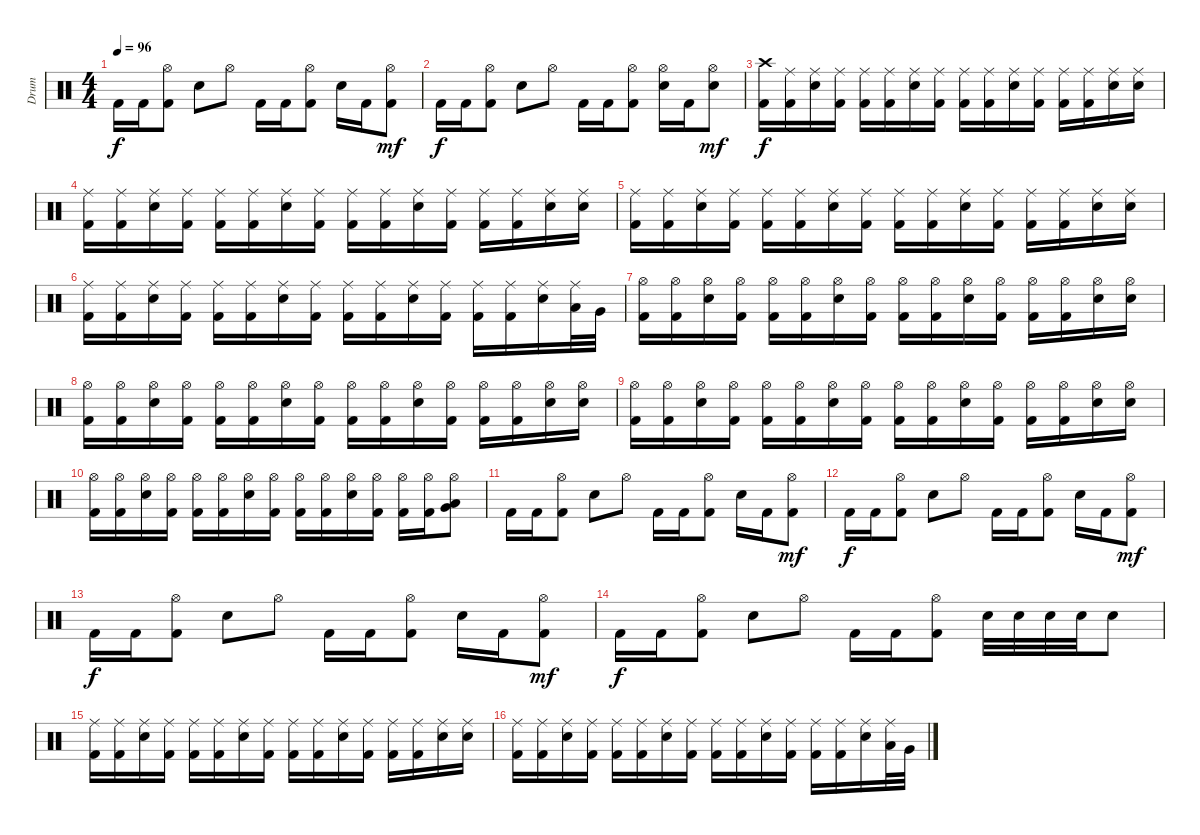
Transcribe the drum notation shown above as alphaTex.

\track ("Drum" "Drum") {instrument percussion}
\staff {score}
\articulation defaults
\ts (4 4)
\tempo 96
\clef neutral
\ks c "Kick (hit) 2".16{dy f} "Kick (hit) 2".16
("Kick (hit) 2" "Hi-Hat (open)").8 "Snare (hit) 2".8 "Hi-Hat (open)".8 "Kick (hit) 2".16 "Kick (hit) 2".16 ("Kick (hit) 2" "Hi-Hat (open)").8 "Snare (hit) 2".16 "Kick (hit) 2".16 ("Kick (hit) 2" "Hi-Hat (open)").8{dy mf} |
"Kick (hit) 2".16{dy f} "Kick (hit) 2".16 ("Kick (hit) 2" "Hi-Hat (open)").8 "Snare (hit) 2".8 "Hi-Hat (open)".8 "Kick (hit) 2".16 "Kick (hit) 2".16 ("Kick (hit) 2" "Hi-Hat (open)").8 ("Snare (hit) 2" "Hi-Hat (open)").16 "Kick (hit) 2".16 ("Snare (hit) 2" "Hi-Hat (open)").8{dy mf} |
("Kick (hit) 2" "Crash high (hit)").16{dy f} ("Kick (hit) 2" "Ride (middle)").16 ("Snare (hit) 2" "Ride (middle)").16 ("Kick (hit) 2" "Ride (middle)").16 ("Kick (hit) 2" "Ride (middle)").16 ("Kick (hit) 2" "Ride (middle)").16 ("Snare (hit) 2" "Ride (middle)").16 ("Kick (hit) 2" "Ride (middle)").16 ("Kick (hit) 2" "Ride (middle)").16 ("Kick (hit) 2" "Ride (middle)").16 ("Snare (hit) 2" "Ride (middle)").16 ("Kick (hit) 2" "Ride (middle)").16 ("Kick (hit) 2" "Ride (middle)").16 ("Kick (hit) 2" "Ride (middle)").16 ("Snare (hit) 2" "Ride (middle)").16 ("Snare (hit) 2" "Ride (middle)").16 |
("Kick (hit) 2" "Ride (middle)").16 ("Kick (hit) 2" "Ride (middle)").16 ("Snare (hit) 2" "Ride (middle)").16 ("Kick (hit) 2" "Ride (middle)").16 ("Kick (hit) 2" "Ride (middle)").16 ("Kick (hit) 2" "Ride (middle)").16 ("Snare (hit) 2" "Ride (middle)").16 ("Kick (hit) 2" "Ride (middle)").16 ("Kick (hit) 2" "Ride (middle)").16 ("Kick (hit) 2" "Ride (middle)").16 ("Snare (hit) 2" "Ride (middle)").16 ("Kick (hit) 2" "Ride (middle)").16 ("Kick (hit) 2" "Ride (middle)").16 ("Kick (hit) 2" "Ride (middle)").16 ("Snare (hit) 2" "Ride (middle)").16 ("Snare (hit) 2" "Ride (middle)").16 |
("Kick (hit) 2" "Ride (middle)").16 ("Kick (hit) 2" "Ride (middle)").16 ("Snare (hit) 2" "Ride (middle)").16 ("Kick (hit) 2" "Ride (middle)").16 ("Kick (hit) 2" "Ride (middle)").16 ("Kick (hit) 2" "Ride (middle)").16 ("Snare (hit) 2" "Ride (middle)").16 ("Kick (hit) 2" "Ride (middle)").16 ("Kick (hit) 2" "Ride (middle)").16 ("Kick (hit) 2" "Ride (middle)").16 ("Snare (hit) 2" "Ride (middle)").16 ("Kick (hit) 2" "Ride (middle)").16 ("Kick (hit) 2" "Ride (middle)").16 ("Kick (hit) 2" "Ride (middle)").16 ("Snare (hit) 2" "Ride (middle)").16 ("Snare (hit) 2" "Ride (middle)").16 |
("Kick (hit) 2" "Ride (middle)").16 ("Kick (hit) 2" "Ride (middle)").16 ("Snare (hit) 2" "Ride (middle)").16 ("Kick (hit) 2" "Ride (middle)").16 ("Kick (hit) 2" "Ride (middle)").16 ("Kick (hit) 2" "Ride (middle)").16 ("Snare (hit) 2" "Ride (middle)").16 ("Kick (hit) 2" "Ride (middle)").16 ("Kick (hit) 2" "Ride (middle)").16 ("Kick (hit) 2" "Ride (middle)").16 ("Snare (hit) 2" "Ride (middle)").16 ("Kick (hit) 2" "Ride (middle)").16 ("Kick (hit) 2" "Ride (middle)").16 ("Kick (hit) 2" "Ride (middle)").16 ("Snare (hit) 2" "Ride (middle)").16 ("Low Tom (hit)" "Ride (middle)").32 "Very Low Tom (hit)".32 |
("Kick (hit) 2" "Hi-Hat (open)").16 ("Kick (hit) 2" "Hi-Hat (open)").16 ("Snare (hit) 2" "Hi-Hat (open)").16 ("Kick (hit) 2" "Hi-Hat (open)").16 ("Kick (hit) 2" "Hi-Hat (open)").16 ("Kick (hit) 2" "Hi-Hat (open)").16 ("Snare (hit) 2" "Hi-Hat (open)").16 ("Kick (hit) 2" "Hi-Hat (open)").16 ("Kick (hit) 2" "Hi-Hat (open)").16 ("Kick (hit) 2" "Hi-Hat (open)").16 ("Snare (hit) 2" "Hi-Hat (open)").16 ("Kick (hit) 2" "Hi-Hat (open)").16 ("Kick (hit) 2" "Hi-Hat (open)").16 ("Kick (hit) 2" "Hi-Hat (open)").16 ("Snare (hit) 2" "Hi-Hat (open)").16 ("Snare (hit) 2" "Hi-Hat (open)").16 |
("Kick (hit) 2" "Hi-Hat (open)").16 ("Kick (hit) 2" "Hi-Hat (open)").16 ("Snare (hit) 2" "Hi-Hat (open)").16 ("Kick (hit) 2" "Hi-Hat (open)").16 ("Kick (hit) 2" "Hi-Hat (open)").16 ("Kick (hit) 2" "Hi-Hat (open)").16 ("Snare (hit) 2" "Hi-Hat (open)").16 ("Kick (hit) 2" "Hi-Hat (open)").16 ("Kick (hit) 2" "Hi-Hat (open)").16 ("Kick (hit) 2" "Hi-Hat (open)").16 ("Snare (hit) 2" "Hi-Hat (open)").16 ("Kick (hit) 2" "Hi-Hat (open)").16 ("Kick (hit) 2" "Hi-Hat (open)").16 ("Kick (hit) 2" "Hi-Hat (open)").16 ("Snare (hit) 2" "Hi-Hat (open)").16 ("Snare (hit) 2" "Hi-Hat (open)").16 |
("Kick (hit) 2" "Hi-Hat (open)").16 ("Kick (hit) 2" "Hi-Hat (open)").16 ("Snare (hit) 2" "Hi-Hat (open)").16 ("Kick (hit) 2" "Hi-Hat (open)").16 ("Kick (hit) 2" "Hi-Hat (open)").16 ("Kick (hit) 2" "Hi-Hat (open)").16 ("Snare (hit) 2" "Hi-Hat (open)").16 ("Kick (hit) 2" "Hi-Hat (open)").16 ("Kick (hit) 2" "Hi-Hat (open)").16 ("Kick (hit) 2" "Hi-Hat (open)").16 ("Snare (hit) 2" "Hi-Hat (open)").16 ("Kick (hit) 2" "Hi-Hat (open)").16 ("Kick (hit) 2" "Hi-Hat (open)").16 ("Kick (hit) 2" "Hi-Hat (open)").16 ("Snare (hit) 2" "Hi-Hat (open)").16 ("Snare (hit) 2" "Hi-Hat (open)").16 |
("Kick (hit) 2" "Hi-Hat (open)").16 ("Kick (hit) 2" "Hi-Hat (open)").16 ("Snare (hit) 2" "Hi-Hat (open)").16 ("Kick (hit) 2" "Hi-Hat (open)").16 ("Kick (hit) 2" "Hi-Hat (open)").16 ("Kick (hit) 2" "Hi-Hat (open)").16 ("Snare (hit) 2" "Hi-Hat (open)").16 ("Kick (hit) 2" "Hi-Hat (open)").16 ("Kick (hit) 2" "Hi-Hat (open)").16 ("Kick (hit) 2" "Hi-Hat (open)").16 ("Snare (hit) 2" "Hi-Hat (open)").16 ("Kick (hit) 2" "Hi-Hat (open)").16 ("Kick (hit) 2" "Hi-Hat (open)").16 ("Kick (hit) 2" "Hi-Hat (open)").16 ("Low Tom (hit)" "Very Low Tom (hit)" "Hi-Hat (open)").8 |
"Kick (hit) 2".16 "Kick (hit) 2".16 ("Kick (hit) 2" "Hi-Hat (open)").8 "Snare (hit) 2".8 "Hi-Hat (open)".8 "Kick (hit) 2".16 "Kick (hit) 2".16 ("Kick (hit) 2" "Hi-Hat (open)").8 "Snare (hit) 2".16 "Kick (hit) 2".16 ("Kick (hit) 2" "Hi-Hat (open)").8{dy mf} |
"Kick (hit) 2".16{dy f} "Kick (hit) 2".16 ("Kick (hit) 2" "Hi-Hat (open)").8 "Snare (hit) 2".8 "Hi-Hat (open)".8 "Kick (hit) 2".16 "Kick (hit) 2".16 ("Kick (hit) 2" "Hi-Hat (open)").8 "Snare (hit) 2".16 "Kick (hit) 2".16 ("Kick (hit) 2" "Hi-Hat (open)").8{dy mf} |
"Kick (hit) 2".16{dy f} "Kick (hit) 2".16 ("Kick (hit) 2" "Hi-Hat (open)").8 "Snare (hit) 2".8 "Hi-Hat (open)".8 "Kick (hit) 2".16 "Kick (hit) 2".16 ("Kick (hit) 2" "Hi-Hat (open)").8 "Snare (hit) 2".16 "Kick (hit) 2".16 ("Kick (hit) 2" "Hi-Hat (open)").8{dy mf} |
"Kick (hit) 2".16{dy f} "Kick (hit) 2".16 ("Kick (hit) 2" "Hi-Hat (open)").8 "Snare (hit) 2".8 "Hi-Hat (open)".8 "Kick (hit) 2".16 "Kick (hit) 2".16 ("Kick (hit) 2" "Hi-Hat (open)").8 "Electric Snare (hit)".32 "Electric Snare (hit)".32 "Electric Snare (hit)".32 "Electric Snare (hit)".32 "Electric Snare (hit)".8 |
("Kick (hit) 2" "Ride (middle)").16 ("Kick (hit) 2" "Ride (middle)").16 ("Snare (hit) 2" "Ride (middle)").16 ("Kick (hit) 2" "Ride (middle)").16 ("Kick (hit) 2" "Ride (middle)").16 ("Kick (hit) 2" "Ride (middle)").16 ("Snare (hit) 2" "Ride (middle)").16 ("Kick (hit) 2" "Ride (middle)").16 ("Kick (hit) 2" "Ride (middle)").16 ("Kick (hit) 2" "Ride (middle)").16 ("Snare (hit) 2" "Ride (middle)").16 ("Kick (hit) 2" "Ride (middle)").16 ("Kick (hit) 2" "Ride (middle)").16 ("Kick (hit) 2" "Ride (middle)").16 ("Snare (hit) 2" "Ride (middle)").16 ("Snare (hit) 2" "Ride (middle)").16 |
("Kick (hit) 2" "Ride (middle)").16 ("Kick (hit) 2" "Ride (middle)").16 ("Snare (hit) 2" "Ride (middle)").16 ("Kick (hit) 2" "Ride (middle)").16 ("Kick (hit) 2" "Ride (middle)").16 ("Kick (hit) 2" "Ride (middle)").16 ("Snare (hit) 2" "Ride (middle)").16 ("Kick (hit) 2" "Ride (middle)").16 ("Kick (hit) 2" "Ride (middle)").16 ("Kick (hit) 2" "Ride (middle)").16 ("Snare (hit) 2" "Ride (middle)").16 ("Kick (hit) 2" "Ride (middle)").16 ("Kick (hit) 2" "Ride (middle)").16 ("Kick (hit) 2" "Ride (middle)").16 ("Snare (hit) 2" "Ride (middle)").16 ("Low Tom (hit)" "Ride (middle)").32 "Very Low Tom (hit)".32
